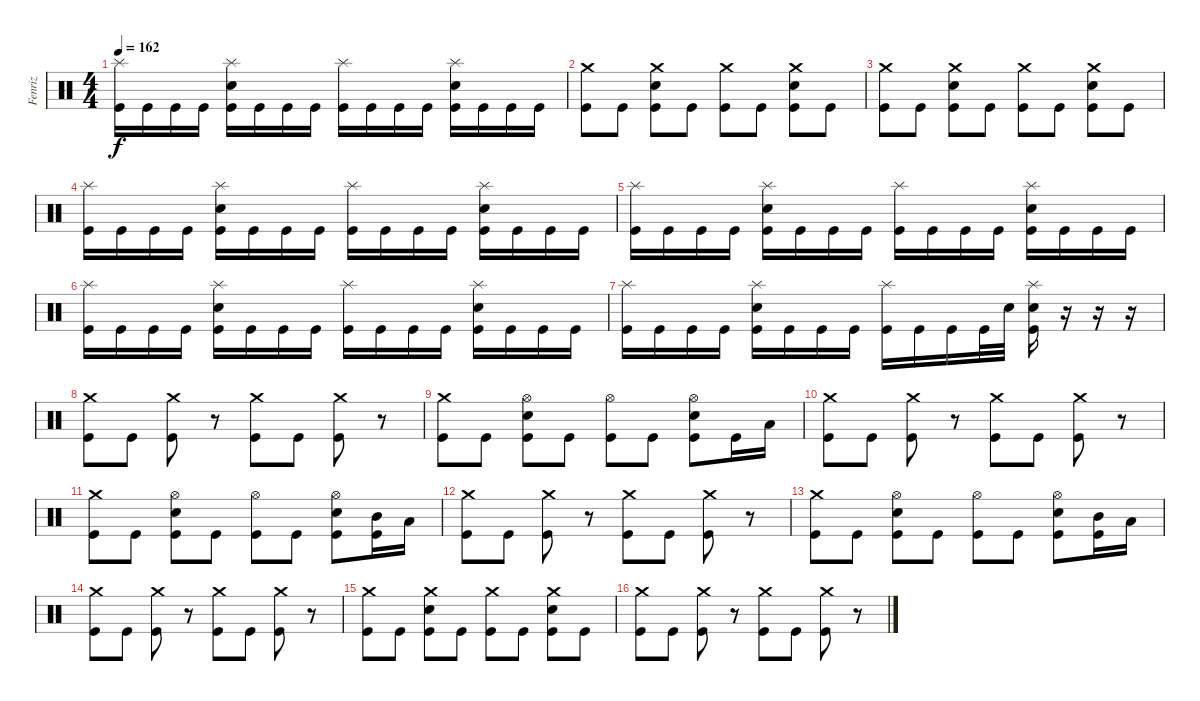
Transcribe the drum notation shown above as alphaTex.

\track ("Fenriz" "Fenriz") {instrument percussion}
\staff {score}
\articulation defaults
\ts (4 4)
\tempo 162
\clef neutral
\ks c
("Splash (hit)" "Kick (hit)").16{dy f} "Kick (hit)".16 "Kick (hit)".16 "Kick (hit)".16 ("Splash (hit)" "Electric Snare (hit)" "Kick (hit)").16 "Kick (hit)".16 "Kick (hit)".16 "Kick (hit)".16 ("Splash (hit)" "Kick (hit)").16 "Kick (hit)".16 "Kick (hit)".16 "Kick (hit)".16 ("Splash (hit)" "Electric Snare (hit)" "Kick (hit)").16 "Kick (hit)".16 "Kick (hit)".16 "Kick (hit)".16 |
("Crash medium (hit)" "Kick (hit)").8 "Kick (hit)".8 ("Crash medium (hit)" "Electric Snare (hit)" "Kick (hit)").8 "Kick (hit)".8 ("Crash medium (hit)" "Kick (hit)").8 "Kick (hit)".8 ("Crash medium (hit)" "Electric Snare (hit)" "Kick (hit)").8 "Kick (hit)".8 |
("Crash medium (hit)" "Kick (hit)").8 "Kick (hit)".8 ("Crash medium (hit)" "Electric Snare (hit)" "Kick (hit)").8 "Kick (hit)".8 ("Crash medium (hit)" "Kick (hit)").8 "Kick (hit)".8 ("Crash medium (hit)" "Electric Snare (hit)" "Kick (hit)").8 "Kick (hit)".8 |
("Splash (hit)" "Kick (hit)").16 "Kick (hit)".16 "Kick (hit)".16 "Kick (hit)".16 ("Splash (hit)" "Electric Snare (hit)" "Kick (hit)").16 "Kick (hit)".16 "Kick (hit)".16 "Kick (hit)".16 ("Splash (hit)" "Kick (hit)").16 "Kick (hit)".16 "Kick (hit)".16 "Kick (hit)".16 ("Splash (hit)" "Electric Snare (hit)" "Kick (hit)").16 "Kick (hit)".16 "Kick (hit)".16 "Kick (hit)".16 |
("Splash (hit)" "Kick (hit)").16 "Kick (hit)".16 "Kick (hit)".16 "Kick (hit)".16 ("Splash (hit)" "Electric Snare (hit)" "Kick (hit)").16 "Kick (hit)".16 "Kick (hit)".16 "Kick (hit)".16 ("Splash (hit)" "Kick (hit)").16 "Kick (hit)".16 "Kick (hit)".16 "Kick (hit)".16 ("Splash (hit)" "Electric Snare (hit)" "Kick (hit)").16 "Kick (hit)".16 "Kick (hit)".16 "Kick (hit)".16 |
("Splash (hit)" "Kick (hit)").16 "Kick (hit)".16 "Kick (hit)".16 "Kick (hit)".16 ("Splash (hit)" "Electric Snare (hit)" "Kick (hit)").16 "Kick (hit)".16 "Kick (hit)".16 "Kick (hit)".16 ("Splash (hit)" "Kick (hit)").16 "Kick (hit)".16 "Kick (hit)".16 "Kick (hit)".16 ("Splash (hit)" "Electric Snare (hit)" "Kick (hit)").16 "Kick (hit)".16 "Kick (hit)".16 "Kick (hit)".16 |
("Splash (hit)" "Kick (hit)").16 "Kick (hit)".16 "Kick (hit)".16 "Kick (hit)".16 ("Splash (hit)" "Electric Snare (hit)" "Kick (hit)").16 "Kick (hit)".16 "Kick (hit)".16 "Kick (hit)".16 ("Splash (hit)" "Kick (hit)").16 "Kick (hit)".16 "Kick (hit)".16 "Kick (hit)".32 "Electric Snare (hit)".32 ("Splash (hit)" "Electric Snare (hit)" "Kick (hit)").16 r.16 r.16 r.16 |
("Crash medium (hit)" "Kick (hit)").8 "Kick (hit)".8 ("Crash medium (hit)" "Kick (hit)").8 r.8 ("Crash medium (hit)" "Kick (hit)").8 "Kick (hit)".8 ("Crash medium (hit)" "Kick (hit)").8 r.8 |
("Crash medium (hit)" "Kick (hit)").8 "Kick (hit)".8 ("Hi-Hat (open)" "Electric Snare (hit)" "Kick (hit)").8 "Kick (hit)".8 ("Hi-Hat (open)" "Kick (hit)").8 "Kick (hit)".8 ("Hi-Hat (open)" "Electric Snare (hit)" "Kick (hit)").8 "Kick (hit)".16 "Low Tom (hit)".16 |
("Crash medium (hit)" "Kick (hit)").8 "Kick (hit)".8 ("Crash medium (hit)" "Kick (hit)").8 r.8 ("Crash medium (hit)" "Kick (hit)").8 "Kick (hit)".8 ("Crash medium (hit)" "Kick (hit)").8 r.8 |
("Crash medium (hit)" "Kick (hit)").8 "Kick (hit)".8 ("Hi-Hat (open)" "Electric Snare (hit)" "Kick (hit)").8 "Kick (hit)".8 ("Hi-Hat (open)" "Kick (hit)").8 "Kick (hit)".8 ("Hi-Hat (open)" "Electric Snare (hit)" "Kick (hit)").8 ("Mid Tom (hit)" "Kick (hit)").16 "Low Tom (hit)".16 |
("Crash medium (hit)" "Kick (hit)").8 "Kick (hit)".8 ("Crash medium (hit)" "Kick (hit)").8 r.8 ("Crash medium (hit)" "Kick (hit)").8 "Kick (hit)".8 ("Crash medium (hit)" "Kick (hit)").8 r.8 |
("Crash medium (hit)" "Kick (hit)").8 "Kick (hit)".8 ("Hi-Hat (open)" "Electric Snare (hit)" "Kick (hit)").8 "Kick (hit)".8 ("Hi-Hat (open)" "Kick (hit)").8 "Kick (hit)".8 ("Hi-Hat (open)" "Electric Snare (hit)" "Kick (hit)").8 ("Mid Tom (hit)" "Kick (hit)").16 "Low Tom (hit)".16 |
("Crash medium (hit)" "Kick (hit)").8 "Kick (hit)".8 ("Crash medium (hit)" "Kick (hit)").8 r.8 ("Crash medium (hit)" "Kick (hit)").8 "Kick (hit)".8 ("Crash medium (hit)" "Kick (hit)").8 r.8 |
("Crash medium (hit)" "Kick (hit)").8 "Kick (hit)".8 ("Crash medium (hit)" "Electric Snare (hit)" "Kick (hit)").8 "Kick (hit)".8 ("Crash medium (hit)" "Kick (hit)").8 "Kick (hit)".8 ("Crash medium (hit)" "Electric Snare (hit)" "Kick (hit)").8 "Kick (hit)".8 |
("Crash medium (hit)" "Kick (hit)").8 "Kick (hit)".8 ("Crash medium (hit)" "Kick (hit)").8 r.8 ("Crash medium (hit)" "Kick (hit)").8 "Kick (hit)".8 ("Crash medium (hit)" "Kick (hit)").8 r.8
